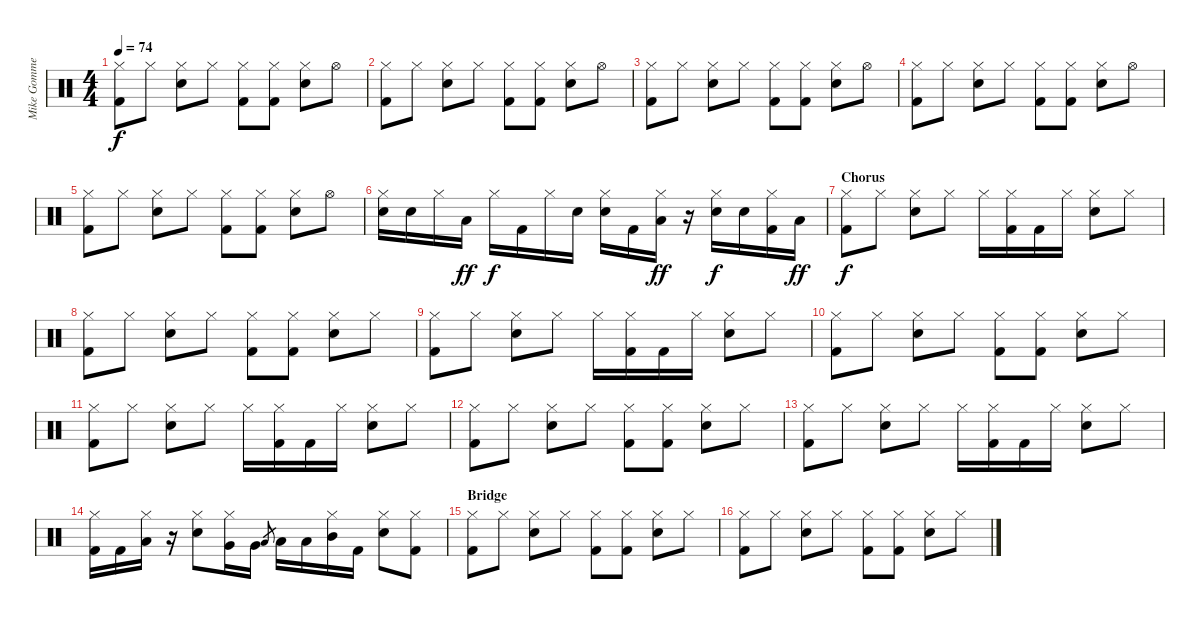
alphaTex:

\track ("Mike Gommeringer" "Mike Gomme") {instrument percussion}
\staff {score}
\articulation defaults
\ts (4 4)
\tempo 74
\clef neutral
\ks c
("Hi-Hat (closed)" "Kick (hit) 2").8{dy f} "Hi-Hat (closed)".8 ("Hi-Hat (closed)" "Snare (hit) 2").8 "Hi-Hat (closed)".8 ("Hi-Hat (closed)" "Kick (hit) 2").8 ("Hi-Hat (closed)" "Kick (hit) 2").8 ("Hi-Hat (closed)" "Snare (hit) 2").8 "Hi-Hat (open)".8 |
("Hi-Hat (closed)" "Kick (hit) 2").8 "Hi-Hat (closed)".8 ("Hi-Hat (closed)" "Snare (hit) 2").8 "Hi-Hat (closed)".8 ("Hi-Hat (closed)" "Kick (hit) 2").8 ("Hi-Hat (closed)" "Kick (hit) 2").8 ("Hi-Hat (closed)" "Snare (hit) 2").8 "Hi-Hat (open)".8 |
("Hi-Hat (closed)" "Kick (hit) 2").8 "Hi-Hat (closed)".8 ("Hi-Hat (closed)" "Snare (hit) 2").8 "Hi-Hat (closed)".8 ("Hi-Hat (closed)" "Kick (hit) 2").8 ("Hi-Hat (closed)" "Kick (hit) 2").8 ("Hi-Hat (closed)" "Snare (hit) 2").8 "Hi-Hat (open)".8 |
("Hi-Hat (closed)" "Kick (hit) 2").8 "Hi-Hat (closed)".8 ("Hi-Hat (closed)" "Snare (hit) 2").8 "Hi-Hat (closed)".8 ("Hi-Hat (closed)" "Kick (hit) 2").8 ("Hi-Hat (closed)" "Kick (hit) 2").8 ("Hi-Hat (closed)" "Snare (hit) 2").8 "Hi-Hat (open)".8 |
("Hi-Hat (closed)" "Kick (hit) 2").8 "Hi-Hat (closed)".8 ("Hi-Hat (closed)" "Snare (hit) 2").8 "Hi-Hat (closed)".8 ("Hi-Hat (closed)" "Kick (hit) 2").8 ("Hi-Hat (closed)" "Kick (hit) 2").8 ("Hi-Hat (closed)" "Snare (hit) 2").8 "Hi-Hat (open)".8 |
("Hi-Hat (closed)" "Snare (hit) 2").16 "Snare (hit) 2".16 "Hi-Hat (closed)".16 "Low Tom (hit)".16{dy ff} "Hi-Hat (closed)".16{dy f} "Kick (hit) 2".16 "Hi-Hat (closed)".16 "Snare (hit) 2".16 ("Hi-Hat (closed)" "Snare (hit) 2").16 "Kick (hit) 2".16 ("Hi-Hat (closed)" "Low Tom (hit)").16{dy ff} r.16 ("Hi-Hat (closed)" "Snare (hit) 2").16{dy f} "Snare (hit) 2".16 ("Hi-Hat (closed)" "Kick (hit) 2").16 "Low Tom (hit)".16{dy ff} |
\section ("" "Chorus")
("Hi-Hat (closed)" "Kick (hit) 2").8{dy f} "Hi-Hat (closed)".8 ("Hi-Hat (closed)" "Snare (hit) 2").8 "Hi-Hat (closed)".8 "Hi-Hat (closed)".16 ("Hi-Hat (closed)" "Kick (hit) 2").16 "Kick (hit) 2".16 "Hi-Hat (closed)".16 ("Hi-Hat (closed)" "Snare (hit) 2").8 "Hi-Hat (closed)".8 |
("Hi-Hat (closed)" "Kick (hit) 2").8 "Hi-Hat (closed)".8 ("Hi-Hat (closed)" "Snare (hit) 2").8 "Hi-Hat (closed)".8 ("Hi-Hat (closed)" "Kick (hit) 2").8 ("Hi-Hat (closed)" "Kick (hit) 2").8 ("Hi-Hat (closed)" "Snare (hit) 2").8 "Hi-Hat (closed)".8 |
("Hi-Hat (closed)" "Kick (hit) 2").8 "Hi-Hat (closed)".8 ("Hi-Hat (closed)" "Snare (hit) 2").8 "Hi-Hat (closed)".8 "Hi-Hat (closed)".16 ("Hi-Hat (closed)" "Kick (hit) 2").16 "Kick (hit) 2".16 "Hi-Hat (closed)".16 ("Hi-Hat (closed)" "Snare (hit) 2").8 "Hi-Hat (closed)".8 |
("Hi-Hat (closed)" "Kick (hit) 2").8 "Hi-Hat (closed)".8 ("Hi-Hat (closed)" "Snare (hit) 2").8 "Hi-Hat (closed)".8 ("Hi-Hat (closed)" "Kick (hit) 2").8 ("Hi-Hat (closed)" "Kick (hit) 2").8 ("Hi-Hat (closed)" "Snare (hit) 2").8 "Hi-Hat (closed)".8 |
("Hi-Hat (closed)" "Kick (hit) 2").8 "Hi-Hat (closed)".8 ("Hi-Hat (closed)" "Snare (hit) 2").8 "Hi-Hat (closed)".8 "Hi-Hat (closed)".16 ("Hi-Hat (closed)" "Kick (hit) 2").16 "Kick (hit) 2".16 "Hi-Hat (closed)".16 ("Hi-Hat (closed)" "Snare (hit) 2").8 "Hi-Hat (closed)".8 |
("Hi-Hat (closed)" "Kick (hit) 2").8 "Hi-Hat (closed)".8 ("Hi-Hat (closed)" "Snare (hit) 2").8 "Hi-Hat (closed)".8 ("Hi-Hat (closed)" "Kick (hit) 2").8 ("Hi-Hat (closed)" "Kick (hit) 2").8 ("Hi-Hat (closed)" "Snare (hit) 2").8 "Hi-Hat (closed)".8 |
("Hi-Hat (closed)" "Kick (hit) 2").8 "Hi-Hat (closed)".8 ("Hi-Hat (closed)" "Snare (hit) 2").8 "Hi-Hat (closed)".8 "Hi-Hat (closed)".16 ("Hi-Hat (closed)" "Kick (hit) 2").16 "Kick (hit) 2".16 "Hi-Hat (closed)".16 ("Hi-Hat (closed)" "Snare (hit) 2").8 "Hi-Hat (closed)".8 |
("Hi-Hat (closed)" "Kick (hit) 2").16 "Kick (hit) 2".16 ("Hi-Hat (closed)" "Low Tom (hit)").16 r.16 ("Hi-Hat (closed)" "Snare (hit) 2").8 ("Hi-Hat (closed)" "Very Low Tom (hit)").16 "Very Low Tom (hit)".16 "Low Tom (hit)".8{gr} "Low Tom (hit)".16 "Low Tom (hit)".16 ("Hi-Hat (closed)" "Mid Tom (hit)").16 "Kick (hit) 2".16 ("Hi-Hat (closed)" "Snare (hit) 2").8 ("Hi-Hat (closed)" "Kick (hit) 2").8 |
\section ("" "Bridge")
("Hi-Hat (closed)" "Kick (hit) 2").8 "Hi-Hat (closed)".8 ("Hi-Hat (closed)" "Snare (hit) 2").8 "Hi-Hat (closed)".8 ("Hi-Hat (closed)" "Kick (hit) 2").8 ("Hi-Hat (closed)" "Kick (hit) 2").8 ("Hi-Hat (closed)" "Snare (hit) 2").8 "Hi-Hat (closed)".8 |
("Hi-Hat (closed)" "Kick (hit) 2").8 "Hi-Hat (closed)".8 ("Hi-Hat (closed)" "Snare (hit) 2").8 "Hi-Hat (closed)".8 ("Hi-Hat (closed)" "Kick (hit) 2").8 ("Hi-Hat (closed)" "Kick (hit) 2").8 ("Hi-Hat (closed)" "Snare (hit) 2").8 "Hi-Hat (closed)".8
